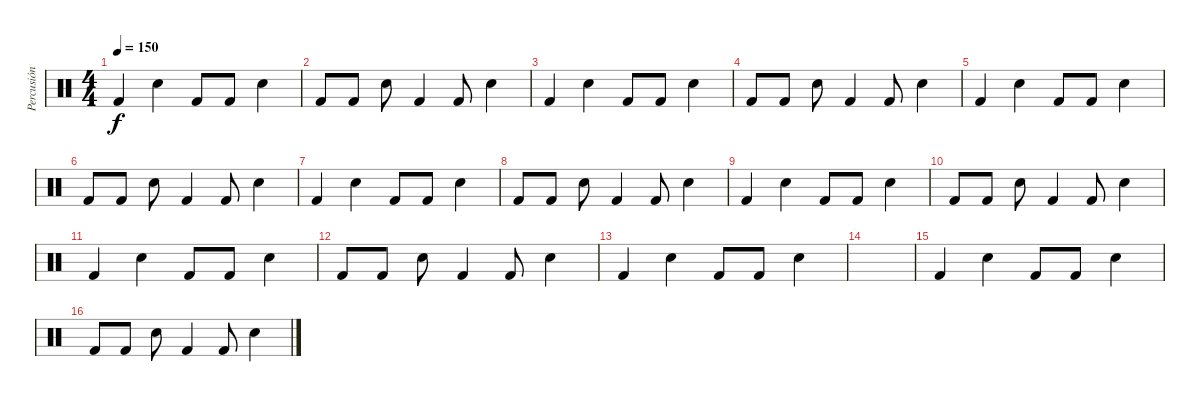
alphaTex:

\track ("Percusión" "Percusión") {instrument percussion}
\staff {score}
\articulation defaults
\ts (4 4)
\tempo 150
\clef neutral
\ks c "Kick (hit) 2".4{dy f} "Snare (hit) 2".4 "Kick (hit) 2".8 "Kick (hit) 2".8 "Snare (hit) 2".4
|
"Kick (hit) 2".8 "Kick (hit) 2".8 "Snare (hit) 2".8 "Kick (hit) 2".4 "Kick (hit) 2".8 "Snare (hit) 2".4 |
"Kick (hit) 2".4 "Snare (hit) 2".4 "Kick (hit) 2".8 "Kick (hit) 2".8 "Snare (hit) 2".4 |
"Kick (hit) 2".8 "Kick (hit) 2".8 "Snare (hit) 2".8 "Kick (hit) 2".4 "Kick (hit) 2".8 "Snare (hit) 2".4 |
"Kick (hit) 2".4 "Snare (hit) 2".4 "Kick (hit) 2".8 "Kick (hit) 2".8 "Snare (hit) 2".4 |
"Kick (hit) 2".8 "Kick (hit) 2".8 "Snare (hit) 2".8 "Kick (hit) 2".4 "Kick (hit) 2".8 "Snare (hit) 2".4 |
"Kick (hit) 2".4 "Snare (hit) 2".4 "Kick (hit) 2".8 "Kick (hit) 2".8 "Snare (hit) 2".4 |
"Kick (hit) 2".8 "Kick (hit) 2".8 "Snare (hit) 2".8 "Kick (hit) 2".4 "Kick (hit) 2".8 "Snare (hit) 2".4 |
"Kick (hit) 2".4 "Snare (hit) 2".4 "Kick (hit) 2".8 "Kick (hit) 2".8 "Snare (hit) 2".4 |
"Kick (hit) 2".8 "Kick (hit) 2".8 "Snare (hit) 2".8 "Kick (hit) 2".4 "Kick (hit) 2".8 "Snare (hit) 2".4 |
"Kick (hit) 2".4 "Snare (hit) 2".4 "Kick (hit) 2".8 "Kick (hit) 2".8 "Snare (hit) 2".4 |
"Kick (hit) 2".8 "Kick (hit) 2".8 "Snare (hit) 2".8 "Kick (hit) 2".4 "Kick (hit) 2".8 "Snare (hit) 2".4 |
"Kick (hit) 2".4 "Snare (hit) 2".4 "Kick (hit) 2".8 "Kick (hit) 2".8 "Snare (hit) 2".4 |
|
"Kick (hit) 2".4 "Snare (hit) 2".4 "Kick (hit) 2".8 "Kick (hit) 2".8 "Snare (hit) 2".4 |
"Kick (hit) 2".8 "Kick (hit) 2".8 "Snare (hit) 2".8 "Kick (hit) 2".4 "Kick (hit) 2".8 "Snare (hit) 2".4
